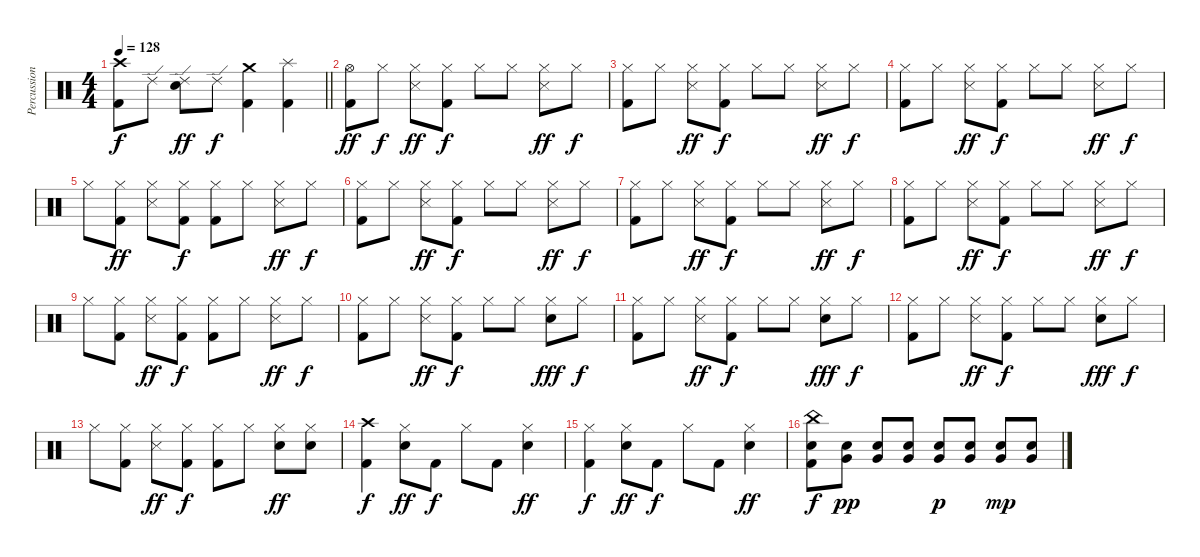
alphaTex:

\track ("Percussion" "Percussion") {instrument percussion}
\staff {score}
\articulation defaults
\ts (4 4)
\tempo 128
\clef neutral
\barLineRight lightlight
\ks c
("Crash high (hit)" "Kick (hit) 2").8{dy f} "Ride (edge) 2".8 ("Ride (edge) 2" "Snare (hit) 2").8{dy ff} "Ride (edge) 2".8{dy f} ("Crash medium (hit)" "Kick (hit) 2").4 ("Splash (hit)" "Kick (hit) 2").4 |
("Hi-Hat (open)" "Kick (hit) 2").8{dy ff} "Hi-Hat (closed)".8{dy f} ("Hi-Hat (closed)" "Snare (side stick) 3").8{dy ff} ("Hi-Hat (closed)" "Kick (hit) 2").8{dy f} "Hi-Hat (closed)".8 "Hi-Hat (closed)".8 ("Hi-Hat (closed)" "Snare (side stick) 3").8{dy ff} "Hi-Hat (closed)".8{dy f} |
("Hi-Hat (closed)" "Kick (hit) 2").8 "Hi-Hat (closed)".8 ("Hi-Hat (closed)" "Snare (side stick) 3").8{dy ff} ("Hi-Hat (closed)" "Kick (hit) 2").8{dy f} "Hi-Hat (closed)".8 "Hi-Hat (closed)".8 ("Hi-Hat (closed)" "Snare (side stick) 3").8{dy ff} "Hi-Hat (closed)".8{dy f} |
("Hi-Hat (closed)" "Kick (hit) 2").8 "Hi-Hat (closed)".8 ("Hi-Hat (closed)" "Snare (side stick) 3").8{dy ff} ("Hi-Hat (closed)" "Kick (hit) 2").8{dy f} "Hi-Hat (closed)".8 "Hi-Hat (closed)".8 ("Hi-Hat (closed)" "Snare (side stick) 3").8{dy ff} "Hi-Hat (closed)".8{dy f} |
"Hi-Hat (closed)".8 ("Hi-Hat (closed)" "Kick (hit) 2").8{dy ff} ("Hi-Hat (closed)" "Snare (side stick) 3").8 ("Hi-Hat (closed)" "Kick (hit) 2").8{dy f} ("Hi-Hat (closed)" "Kick (hit) 2").8 "Hi-Hat (closed)".8 ("Hi-Hat (closed)" "Snare (side stick) 3").8{dy ff} "Hi-Hat (closed)".8{dy f} |
("Hi-Hat (closed)" "Kick (hit) 2").8 "Hi-Hat (closed)".8 ("Hi-Hat (closed)" "Snare (side stick) 3").8{dy ff} ("Hi-Hat (closed)" "Kick (hit) 2").8{dy f} "Hi-Hat (closed)".8 "Hi-Hat (closed)".8 ("Hi-Hat (closed)" "Snare (side stick) 3").8{dy ff} "Hi-Hat (closed)".8{dy f} |
("Hi-Hat (closed)" "Kick (hit) 2").8 "Hi-Hat (closed)".8 ("Hi-Hat (closed)" "Snare (side stick) 3").8{dy ff} ("Hi-Hat (closed)" "Kick (hit) 2").8{dy f} "Hi-Hat (closed)".8 "Hi-Hat (closed)".8 ("Hi-Hat (closed)" "Snare (side stick) 3").8{dy ff} "Hi-Hat (closed)".8{dy f} |
("Hi-Hat (closed)" "Kick (hit) 2").8 "Hi-Hat (closed)".8 ("Hi-Hat (closed)" "Snare (side stick) 3").8{dy ff} ("Hi-Hat (closed)" "Kick (hit) 2").8{dy f} "Hi-Hat (closed)".8 "Hi-Hat (closed)".8 ("Hi-Hat (closed)" "Snare (side stick) 3").8{dy ff} "Hi-Hat (closed)".8{dy f} |
"Hi-Hat (closed)".8 ("Hi-Hat (closed)" "Kick (hit) 2").8 ("Hi-Hat (closed)" "Snare (side stick) 3").8{dy ff} ("Hi-Hat (closed)" "Kick (hit) 2").8{dy f} ("Hi-Hat (closed)" "Kick (hit) 2").8 "Hi-Hat (closed)".8 ("Hi-Hat (closed)" "Snare (side stick) 3").8{dy ff} "Hi-Hat (closed)".8{dy f} |
("Hi-Hat (closed)" "Kick (hit) 2").8 "Hi-Hat (closed)".8 ("Hi-Hat (closed)" "Snare (side stick) 3").8{dy ff} ("Hi-Hat (closed)" "Kick (hit) 2").8{dy f} "Hi-Hat (closed)".8 "Hi-Hat (closed)".8 ("Hi-Hat (closed)" "Snare (hit) 2").8{dy fff} "Hi-Hat (closed)".8{dy f} |
("Hi-Hat (closed)" "Kick (hit) 2").8 "Hi-Hat (closed)".8 ("Hi-Hat (closed)" "Snare (side stick) 3").8{dy ff} ("Hi-Hat (closed)" "Kick (hit) 2").8{dy f} "Hi-Hat (closed)".8 "Hi-Hat (closed)".8 ("Hi-Hat (closed)" "Snare (hit) 2").8{dy fff} "Hi-Hat (closed)".8{dy f} |
("Hi-Hat (closed)" "Kick (hit) 2").8 "Hi-Hat (closed)".8 ("Hi-Hat (closed)" "Snare (side stick) 3").8{dy ff} ("Hi-Hat (closed)" "Kick (hit) 2").8{dy f} "Hi-Hat (closed)".8 "Hi-Hat (closed)".8 ("Hi-Hat (closed)" "Snare (hit) 2").8{dy fff} "Hi-Hat (closed)".8{dy f} |
"Hi-Hat (closed)".8 ("Hi-Hat (closed)" "Kick (hit) 2").8 ("Hi-Hat (closed)" "Snare (side stick) 3").8{dy ff} ("Hi-Hat (closed)" "Kick (hit) 2").8{dy f} ("Hi-Hat (closed)" "Kick (hit) 2").8 "Hi-Hat (closed)".8 ("Hi-Hat (closed)" "Snare (hit) 2").8{dy ff} ("Hi-Hat (closed)" "Snare (hit) 2").8 |
("Crash high (hit)" "Kick (hit) 2").4{dy f} ("Hi-Hat (closed)" "Snare (hit) 2").8{dy ff} "Kick (hit) 2".8{dy f} "Hi-Hat (closed)".8 "Kick (hit) 2".8 ("Hi-Hat (closed)" "Snare (hit) 2").4{dy ff} |
("Hi-Hat (closed)" "Kick (hit) 2").4{dy f} ("Hi-Hat (closed)" "Snare (hit) 2").8{dy ff} "Kick (hit) 2".8{dy f} "Hi-Hat (closed)".8 "Kick (hit) 2".8 ("Hi-Hat (closed)" "Snare (hit) 2").4{dy ff} |
("China (hit)" "Snare (hit) 2" "Kick (hit) 2").8{dy f} ("Very Low Tom (hit)" "Snare (hit) 2").8{dy pp} ("Very Low Tom (hit)" "Snare (hit) 2").8 ("Very Low Tom (hit)" "Snare (hit) 2").8 ("Very Low Tom (hit)" "Snare (hit) 2").8{dy p} ("Very Low Tom (hit)" "Snare (hit) 2").8 ("Very Low Tom (hit)" "Snare (hit) 2").8{dy mp} ("Very Low Tom (hit)" "Snare (hit) 2").8
